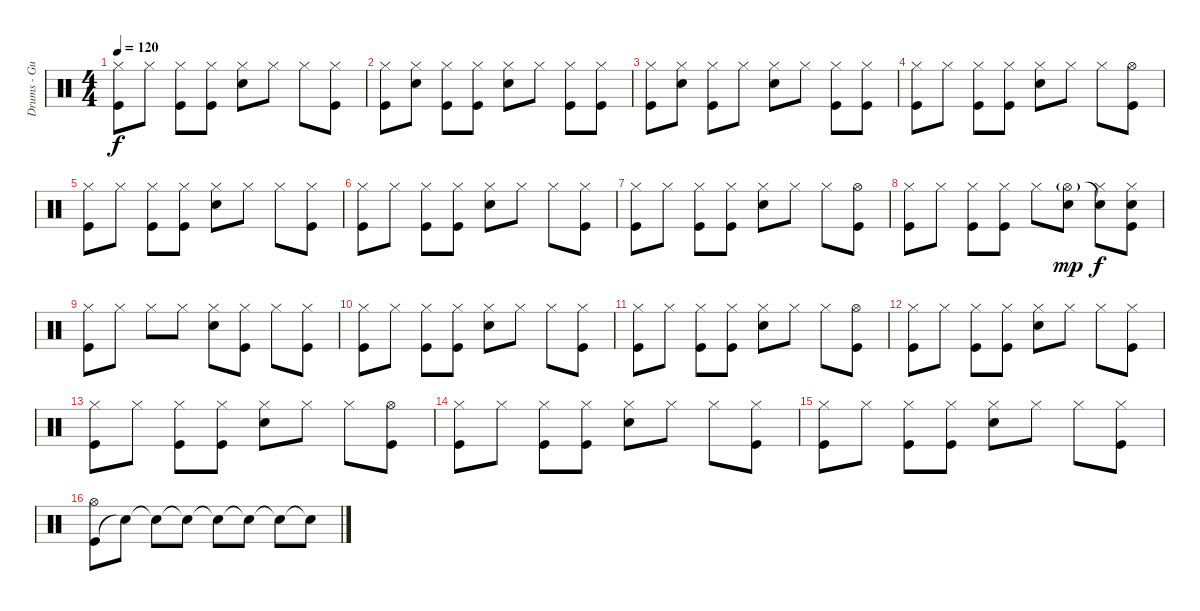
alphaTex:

\track ("Drums - Gustav" "Drums - Gu") {instrument percussion}
\staff {score}
\articulation defaults
\ts (4 4)
\tempo 120
\clef neutral
\ks c
("Kick (hit)" "Hi-Hat (closed)").8{dy f} "Hi-Hat (closed)".8 ("Kick (hit)" "Hi-Hat (closed)").8 ("Kick (hit)" "Hi-Hat (closed)").8 ("Hi-Hat (closed)" "Snare (hit) 2").8 "Hi-Hat (closed)".8 "Hi-Hat (closed)".8 ("Kick (hit)" "Hi-Hat (closed)").8 |
("Kick (hit)" "Hi-Hat (closed)").8 ("Hi-Hat (closed)" "Snare (hit) 2").8 ("Kick (hit)" "Hi-Hat (closed)").8 ("Kick (hit)" "Hi-Hat (closed)").8 ("Hi-Hat (closed)" "Snare (hit) 2").8 "Hi-Hat (closed)".8 ("Kick (hit)" "Hi-Hat (closed)").8 ("Kick (hit)" "Hi-Hat (closed)").8 |
("Kick (hit)" "Hi-Hat (closed)").8 ("Hi-Hat (closed)" "Snare (hit) 2").8 ("Kick (hit)" "Hi-Hat (closed)").8 "Hi-Hat (closed)".8 ("Hi-Hat (closed)" "Snare (hit) 2").8 "Hi-Hat (closed)".8 ("Kick (hit)" "Hi-Hat (closed)").8 ("Kick (hit)" "Hi-Hat (closed)").8 |
("Kick (hit)" "Hi-Hat (closed)").8 "Hi-Hat (closed)".8 ("Kick (hit)" "Hi-Hat (closed)").8 ("Kick (hit)" "Hi-Hat (closed)").8 ("Hi-Hat (closed)" "Snare (hit) 2").8 "Hi-Hat (closed)".8 "Hi-Hat (closed)".8 ("Kick (hit)" "Hi-Hat (open)").8 |
("Kick (hit)" "Hi-Hat (closed)").8 "Hi-Hat (closed)".8 ("Kick (hit)" "Hi-Hat (closed)").8 ("Kick (hit)" "Hi-Hat (closed)").8 ("Hi-Hat (closed)" "Snare (hit) 2").8 "Hi-Hat (closed)".8 "Hi-Hat (closed)".8 ("Kick (hit)" "Hi-Hat (closed)").8 |
("Kick (hit)" "Hi-Hat (closed)").8 "Hi-Hat (closed)".8 ("Kick (hit)" "Hi-Hat (closed)").8 ("Kick (hit)" "Hi-Hat (closed)").8 ("Hi-Hat (closed)" "Snare (hit) 2").8 "Hi-Hat (closed)".8 "Hi-Hat (closed)".8 ("Kick (hit)" "Hi-Hat (closed)").8 |
("Kick (hit)" "Hi-Hat (closed)").8 "Hi-Hat (closed)".8 ("Kick (hit)" "Hi-Hat (closed)").8 ("Kick (hit)" "Hi-Hat (closed)").8 ("Hi-Hat (closed)" "Snare (hit) 2").8 "Hi-Hat (closed)".8 "Hi-Hat (closed)".8 ("Kick (hit)" "Hi-Hat (open)").8 |
("Kick (hit)" "Hi-Hat (closed)").8 "Hi-Hat (closed)".8 ("Kick (hit)" "Hi-Hat (closed)").8 ("Kick (hit)" "Hi-Hat (closed)").8 "Hi-Hat (closed)".8 ("Snare (hit) 2" "Hi-Hat (open)"{g}).8{dy mp} ("Hi-Hat (closed)" "Snare (hit)"{t}).8{dy f} ("Kick (hit)" "Hi-Hat (closed)" "Snare (hit)").8 |
("Kick (hit)" "Hi-Hat (closed)").8 "Hi-Hat (closed)".8 "Hi-Hat (closed)".8 "Hi-Hat (closed)".8 ("Hi-Hat (closed)" "Snare (hit) 2").8 ("Kick (hit)" "Hi-Hat (closed)").8 "Hi-Hat (closed)".8 ("Kick (hit)" "Hi-Hat (closed)").8 |
("Kick (hit)" "Hi-Hat (closed)").8 "Hi-Hat (closed)".8 ("Kick (hit)" "Hi-Hat (closed)").8 ("Kick (hit)" "Hi-Hat (closed)").8 ("Hi-Hat (closed)" "Snare (hit) 2").8 "Hi-Hat (closed)".8 "Hi-Hat (closed)".8 ("Kick (hit)" "Hi-Hat (closed)").8 |
("Kick (hit)" "Hi-Hat (closed)").8 "Hi-Hat (closed)".8 ("Kick (hit)" "Hi-Hat (closed)").8 ("Kick (hit)" "Hi-Hat (closed)").8 ("Hi-Hat (closed)" "Snare (hit) 2").8 "Hi-Hat (closed)".8 "Hi-Hat (closed)".8 ("Kick (hit)" "Hi-Hat (open)").8 |
("Kick (hit)" "Hi-Hat (closed)").8 "Hi-Hat (closed)".8 ("Kick (hit)" "Hi-Hat (closed)").8 ("Kick (hit)" "Hi-Hat (closed)").8 ("Hi-Hat (closed)" "Snare (hit) 2").8 "Hi-Hat (closed)".8 "Hi-Hat (closed)".8 ("Kick (hit)" "Hi-Hat (closed)").8 |
("Kick (hit)" "Hi-Hat (closed)").8 "Hi-Hat (closed)".8 ("Kick (hit)" "Hi-Hat (closed)").8 ("Kick (hit)" "Hi-Hat (closed)").8 ("Hi-Hat (closed)" "Snare (hit) 2").8 "Hi-Hat (closed)".8 "Hi-Hat (closed)".8 ("Kick (hit)" "Hi-Hat (open)").8 |
("Kick (hit)" "Hi-Hat (closed)").8 "Hi-Hat (closed)".8 ("Kick (hit)" "Hi-Hat (closed)").8 ("Kick (hit)" "Hi-Hat (closed)").8 ("Hi-Hat (closed)" "Snare (hit) 2").8 "Hi-Hat (closed)".8 "Hi-Hat (closed)".8 ("Kick (hit)" "Hi-Hat (closed)").8 |
("Kick (hit)" "Hi-Hat (closed)").8 "Hi-Hat (closed)".8 ("Kick (hit)" "Hi-Hat (closed)").8 ("Kick (hit)" "Hi-Hat (closed)").8 ("Hi-Hat (closed)" "Snare (hit) 2").8 "Hi-Hat (closed)".8 "Hi-Hat (closed)".8 ("Kick (hit)" "Hi-Hat (closed)").8 |
("Kick (hit)" "Hi-Hat (open)").8 "Snare (hit)"{t}.8 "Snare (hit)"{t}.8 "Snare (hit)"{t}.8 "Snare (hit)"{t}.8 "Snare (hit)"{t}.8 "Snare (hit)"{t}.8 "Snare (hit)"{t}.8
